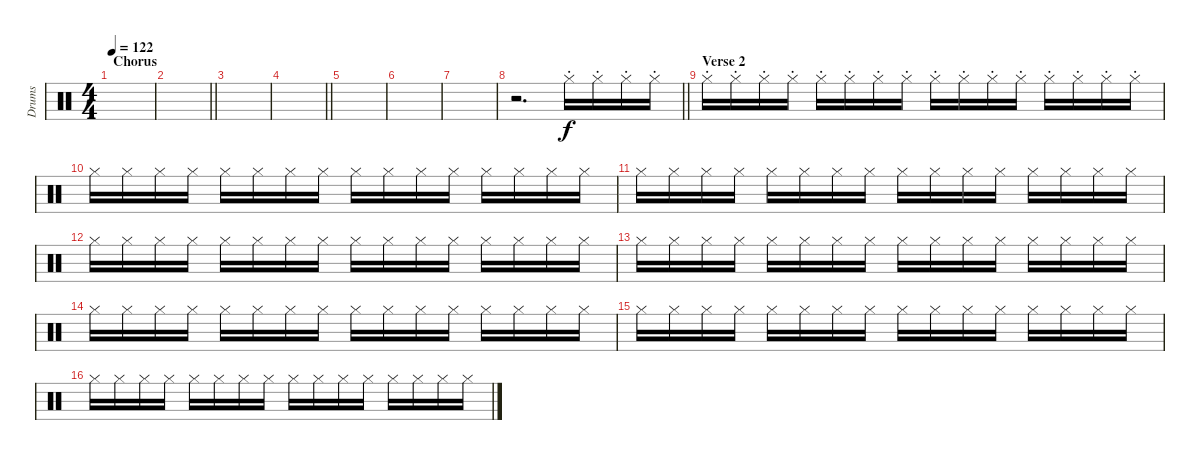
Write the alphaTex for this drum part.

\track ("Drums" "Drums") {instrument percussion}
\staff {score}
\articulation defaults
\ts (4 4)
\section ("" "Chorus")
\tempo 122
\clef neutral
\ks c
|
\barLineRight lightlight
|
|
\barLineRight lightlight
|
|
|
|
\barLineRight lightlight
r.2{d} "Hi-Hat (closed)"{st}.16 "Hi-Hat (closed)"{st}.16 "Hi-Hat (closed)"{st}.16 "Hi-Hat (closed)"{st}.16 |
\section ("" "Verse 2")
"Hi-Hat (closed)"{st}.16 "Hi-Hat (closed)"{st}.16 "Hi-Hat (closed)"{st}.16 "Hi-Hat (closed)"{st}.16 "Hi-Hat (closed)"{st}.16 "Hi-Hat (closed)"{st}.16 "Hi-Hat (closed)"{st}.16 "Hi-Hat (closed)"{st}.16 "Hi-Hat (closed)"{st}.16 "Hi-Hat (closed)"{st}.16 "Hi-Hat (closed)"{st}.16 "Hi-Hat (closed)"{st}.16 "Hi-Hat (closed)"{st}.16 "Hi-Hat (closed)"{st}.16 "Hi-Hat (closed)"{st}.16 "Hi-Hat (closed)"{st}.16 |
"Hi-Hat (closed)".16 "Hi-Hat (closed)".16 "Hi-Hat (closed)".16 "Hi-Hat (closed)".16 "Hi-Hat (closed)".16 "Hi-Hat (closed)".16 "Hi-Hat (closed)".16 "Hi-Hat (closed)".16 "Hi-Hat (closed)".16 "Hi-Hat (closed)".16 "Hi-Hat (closed)".16 "Hi-Hat (closed)".16 "Hi-Hat (closed)".16 "Hi-Hat (closed)".16 "Hi-Hat (closed)".16 "Hi-Hat (closed)".16 |
"Hi-Hat (closed)".16 "Hi-Hat (closed)".16 "Hi-Hat (closed)".16 "Hi-Hat (closed)".16 "Hi-Hat (closed)".16 "Hi-Hat (closed)".16 "Hi-Hat (closed)".16 "Hi-Hat (closed)".16 "Hi-Hat (closed)".16 "Hi-Hat (closed)".16 "Hi-Hat (closed)".16 "Hi-Hat (closed)".16 "Hi-Hat (closed)".16 "Hi-Hat (closed)".16 "Hi-Hat (closed)".16 "Hi-Hat (closed)".16 |
"Hi-Hat (closed)".16 "Hi-Hat (closed)".16 "Hi-Hat (closed)".16 "Hi-Hat (closed)".16 "Hi-Hat (closed)".16 "Hi-Hat (closed)".16 "Hi-Hat (closed)".16 "Hi-Hat (closed)".16 "Hi-Hat (closed)".16 "Hi-Hat (closed)".16 "Hi-Hat (closed)".16 "Hi-Hat (closed)".16 "Hi-Hat (closed)".16 "Hi-Hat (closed)".16 "Hi-Hat (closed)".16 "Hi-Hat (closed)".16 |
"Hi-Hat (closed)".16 "Hi-Hat (closed)".16 "Hi-Hat (closed)".16 "Hi-Hat (closed)".16 "Hi-Hat (closed)".16 "Hi-Hat (closed)".16 "Hi-Hat (closed)".16 "Hi-Hat (closed)".16 "Hi-Hat (closed)".16 "Hi-Hat (closed)".16 "Hi-Hat (closed)".16 "Hi-Hat (closed)".16 "Hi-Hat (closed)".16 "Hi-Hat (closed)".16 "Hi-Hat (closed)".16 "Hi-Hat (closed)".16 |
"Hi-Hat (closed)".16 "Hi-Hat (closed)".16 "Hi-Hat (closed)".16 "Hi-Hat (closed)".16 "Hi-Hat (closed)".16 "Hi-Hat (closed)".16 "Hi-Hat (closed)".16 "Hi-Hat (closed)".16 "Hi-Hat (closed)".16 "Hi-Hat (closed)".16 "Hi-Hat (closed)".16 "Hi-Hat (closed)".16 "Hi-Hat (closed)".16 "Hi-Hat (closed)".16 "Hi-Hat (closed)".16 "Hi-Hat (closed)".16 |
"Hi-Hat (closed)".16 "Hi-Hat (closed)".16 "Hi-Hat (closed)".16 "Hi-Hat (closed)".16 "Hi-Hat (closed)".16 "Hi-Hat (closed)".16 "Hi-Hat (closed)".16 "Hi-Hat (closed)".16 "Hi-Hat (closed)".16 "Hi-Hat (closed)".16 "Hi-Hat (closed)".16 "Hi-Hat (closed)".16 "Hi-Hat (closed)".16 "Hi-Hat (closed)".16 "Hi-Hat (closed)".16 "Hi-Hat (closed)".16 |
"Hi-Hat (closed)".16 "Hi-Hat (closed)".16 "Hi-Hat (closed)".16 "Hi-Hat (closed)".16 "Hi-Hat (closed)".16 "Hi-Hat (closed)".16 "Hi-Hat (closed)".16 "Hi-Hat (closed)".16 "Hi-Hat (closed)".16 "Hi-Hat (closed)".16 "Hi-Hat (closed)".16 "Hi-Hat (closed)".16 "Hi-Hat (closed)".16 "Hi-Hat (closed)".16 "Hi-Hat (closed)".16 "Hi-Hat (closed)".16
